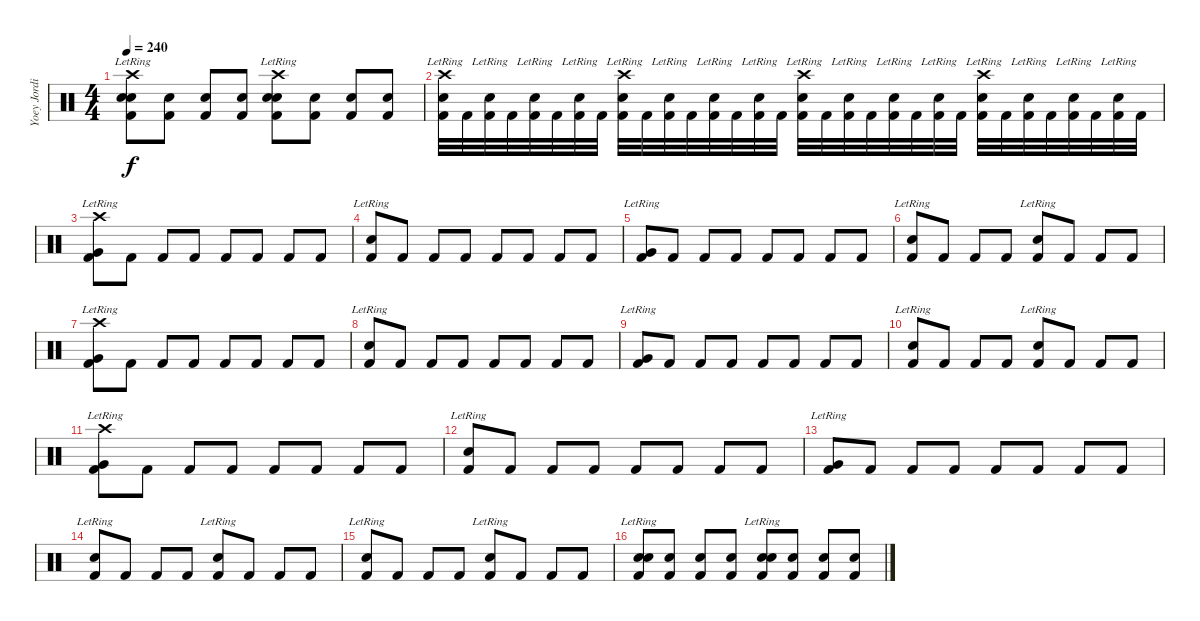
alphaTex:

\track ("Yoey Jordison" "Yoey Jordi") {instrument percussion}
\staff {score}
\articulation defaults
\ts (4 4)
\tempo 240
\clef neutral
\ks c
("Crash high (hit)" "Snare (hit) 2" "Kick (hit) 2" "Electric Snare (hit)"{lr}).8{dy f} ("Snare (hit) 2" "Kick (hit) 2").8 ("Snare (hit) 2" "Kick (hit) 2").8 ("Snare (hit) 2" "Kick (hit) 2").8 ("Crash high (hit)" "Snare (hit) 2" "Kick (hit) 2" "Electric Snare (hit)"{lr}).8 ("Snare (hit) 2" "Kick (hit) 2").8 ("Snare (hit) 2" "Kick (hit) 2").8 ("Snare (hit) 2" "Kick (hit) 2").8 |
("Crash high (hit)" "Kick (hit) 2" "Electric Snare (hit)"{lr}).32 "Kick (hit) 2".32 ("Kick (hit) 2" "Electric Snare (hit)"{lr}).32 "Kick (hit) 2".32 ("Kick (hit) 2" "Electric Snare (hit)"{lr}).32 "Kick (hit) 2".32 ("Kick (hit) 2" "Electric Snare (hit)"{lr}).32 "Kick (hit) 2".32 ("Crash high (hit)" "Kick (hit) 2" "Electric Snare (hit)"{lr}).32 "Kick (hit) 2".32 ("Kick (hit) 2" "Electric Snare (hit)"{lr}).32 "Kick (hit) 2".32 ("Kick (hit) 2" "Electric Snare (hit)"{lr}).32 "Kick (hit) 2".32 ("Kick (hit) 2" "Electric Snare (hit)"{lr}).32 "Kick (hit) 2".32 ("Crash high (hit)" "Kick (hit) 2" "Electric Snare (hit)"{lr}).32 "Kick (hit) 2".32 ("Kick (hit) 2" "Electric Snare (hit)"{lr}).32 "Kick (hit) 2".32 ("Kick (hit) 2" "Electric Snare (hit)"{lr}).32 "Kick (hit) 2".32 ("Kick (hit) 2" "Electric Snare (hit)"{lr}).32 "Kick (hit) 2".32 ("Crash high (hit)" "Kick (hit) 2" "Electric Snare (hit)"{lr}).32 "Kick (hit) 2".32 ("Kick (hit) 2" "Electric Snare (hit)"{lr}).32 "Kick (hit) 2".32 ("Kick (hit) 2" "Electric Snare (hit)"{lr}).32 "Kick (hit) 2".32 ("Kick (hit) 2" "Electric Snare (hit)"{lr}).32 "Kick (hit) 2".32 |
("Crash high (hit)" "Kick (hit) 2" "Very Low Tom (hit)"{lr}).8 "Kick (hit) 2".8 "Kick (hit) 2".8 "Kick (hit) 2".8 "Kick (hit) 2".8 "Kick (hit) 2".8 "Kick (hit) 2".8 "Kick (hit) 2".8 |
("Kick (hit) 2" "Snare (hit) 2"{lr}).8 "Kick (hit) 2".8 "Kick (hit) 2".8 "Kick (hit) 2".8 "Kick (hit) 2".8 "Kick (hit) 2".8 "Kick (hit) 2".8 "Kick (hit) 2".8 |
("Kick (hit) 2" "Very Low Tom (hit)"{lr}).8 "Kick (hit) 2".8 "Kick (hit) 2".8 "Kick (hit) 2".8 "Kick (hit) 2".8 "Kick (hit) 2".8 "Kick (hit) 2".8 "Kick (hit) 2".8 |
("Kick (hit) 2" "Snare (hit) 2"{lr}).8 "Kick (hit) 2".8 "Kick (hit) 2".8 "Kick (hit) 2".8 ("Kick (hit) 2" "Snare (hit) 2"{lr}).8 "Kick (hit) 2".8 "Kick (hit) 2".8 "Kick (hit) 2".8 |
("Crash high (hit)" "Kick (hit) 2" "Very Low Tom (hit)"{lr}).8 "Kick (hit) 2".8 "Kick (hit) 2".8 "Kick (hit) 2".8 "Kick (hit) 2".8 "Kick (hit) 2".8 "Kick (hit) 2".8 "Kick (hit) 2".8 |
("Kick (hit) 2" "Snare (hit) 2"{lr}).8 "Kick (hit) 2".8 "Kick (hit) 2".8 "Kick (hit) 2".8 "Kick (hit) 2".8 "Kick (hit) 2".8 "Kick (hit) 2".8 "Kick (hit) 2".8 |
("Kick (hit) 2" "Very Low Tom (hit)"{lr}).8 "Kick (hit) 2".8 "Kick (hit) 2".8 "Kick (hit) 2".8 "Kick (hit) 2".8 "Kick (hit) 2".8 "Kick (hit) 2".8 "Kick (hit) 2".8 |
("Kick (hit) 2" "Snare (hit) 2"{lr}).8 "Kick (hit) 2".8 "Kick (hit) 2".8 "Kick (hit) 2".8 ("Kick (hit) 2" "Snare (hit) 2"{lr}).8 "Kick (hit) 2".8 "Kick (hit) 2".8 "Kick (hit) 2".8 |
("Crash high (hit)" "Kick (hit) 2" "Very Low Tom (hit)"{lr}).8 "Kick (hit) 2".8 "Kick (hit) 2".8 "Kick (hit) 2".8 "Kick (hit) 2".8 "Kick (hit) 2".8 "Kick (hit) 2".8 "Kick (hit) 2".8 |
("Kick (hit) 2" "Snare (hit) 2"{lr}).8 "Kick (hit) 2".8 "Kick (hit) 2".8 "Kick (hit) 2".8 "Kick (hit) 2".8 "Kick (hit) 2".8 "Kick (hit) 2".8 "Kick (hit) 2".8 |
("Kick (hit) 2" "Very Low Tom (hit)"{lr}).8 "Kick (hit) 2".8 "Kick (hit) 2".8 "Kick (hit) 2".8 "Kick (hit) 2".8 "Kick (hit) 2".8 "Kick (hit) 2".8 "Kick (hit) 2".8 |
("Kick (hit) 2" "Snare (hit) 2"{lr}).8 "Kick (hit) 2".8 "Kick (hit) 2".8 "Kick (hit) 2".8 ("Kick (hit) 2" "Snare (hit) 2"{lr}).8 "Kick (hit) 2".8 "Kick (hit) 2".8 "Kick (hit) 2".8 |
("Kick (hit) 2" "Electric Snare (hit)"{lr}).8 "Kick (hit) 2".8 "Kick (hit) 2".8 "Kick (hit) 2".8 ("Kick (hit) 2" "Electric Snare (hit)"{lr}).8 "Kick (hit) 2".8 "Kick (hit) 2".8 "Kick (hit) 2".8 |
("Snare (hit) 2" "Kick (hit) 2" "Electric Snare (hit)"{lr}).8 ("Snare (hit) 2" "Kick (hit) 2").8 ("Snare (hit) 2" "Kick (hit) 2").8 ("Snare (hit) 2" "Kick (hit) 2").8 ("Snare (hit) 2" "Kick (hit) 2" "Electric Snare (hit)"{lr}).8 ("Snare (hit) 2" "Kick (hit) 2").8 ("Snare (hit) 2" "Kick (hit) 2").8 ("Snare (hit) 2" "Kick (hit) 2").8
